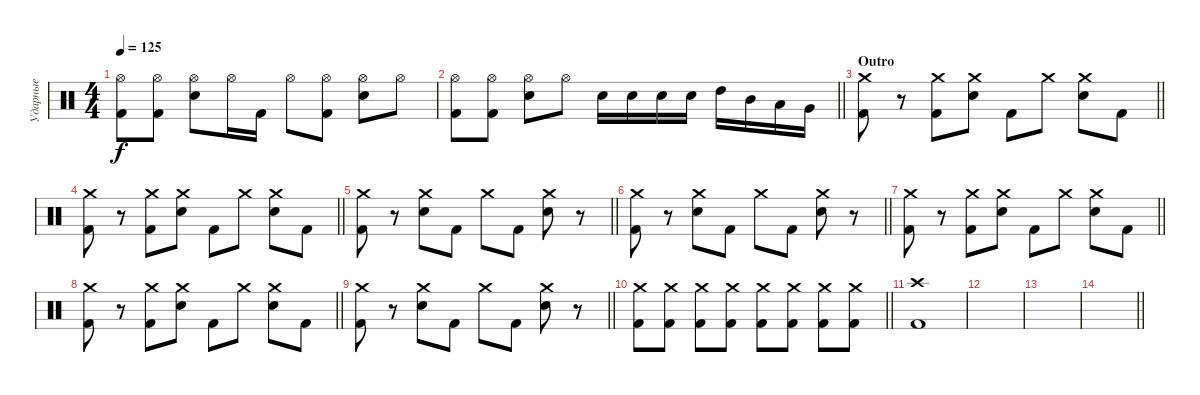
\track ("Ударные" "Ударные") {instrument percussion}
\staff {score}
\articulation defaults
\ts (4 4)
\tempo 125
\clef neutral
\ks c
("Hi-Hat (open)" "Kick (hit) 2").8{dy f} ("Hi-Hat (open)" "Kick (hit) 2").8 ("Hi-Hat (open)" "Electric Snare (hit)").8 "Hi-Hat (open)".16 "Kick (hit) 2".16 "Hi-Hat (open)".8 ("Hi-Hat (open)" "Kick (hit) 2").8 ("Hi-Hat (open)" "Electric Snare (hit)").8 "Hi-Hat (open)".8 |
\barLineRight lightlight
("Hi-Hat (open)" "Kick (hit) 2").8 ("Hi-Hat (open)" "Kick (hit) 2").8 ("Hi-Hat (open)" "Electric Snare (hit)").8 "Hi-Hat (open)".8 "Electric Snare (hit)".16 "Electric Snare (hit)".16 "Electric Snare (hit)".16 "Electric Snare (hit)".16 "High Tom (hit)".16 "Mid Tom (hit)".16 "Low Tom (hit)".16 "Very Low Tom (hit)".16 |
\section ("" "Outro")
\barLineRight lightlight
("Crash medium (hit)" "Kick (hit) 2").8 r.8 ("Crash medium (hit)" "Kick (hit) 2").8 ("Crash medium (hit)" "Electric Snare (hit)").8 "Kick (hit) 2".8 "Crash medium (hit)".8 ("Crash medium (hit)" "Electric Snare (hit)").8 "Kick (hit) 2".8 |
\barLineRight lightlight
("Crash medium (hit)" "Kick (hit) 2").8 r.8 ("Crash medium (hit)" "Kick (hit) 2").8 ("Crash medium (hit)" "Electric Snare (hit)").8 "Kick (hit) 2".8 "Crash medium (hit)".8 ("Crash medium (hit)" "Electric Snare (hit)").8 "Kick (hit) 2".8 |
\barLineRight lightlight
("Crash medium (hit)" "Kick (hit) 2").8 r.8 ("Crash medium (hit)" "Electric Snare (hit)").8 "Kick (hit) 2".8 "Crash medium (hit)".8 "Kick (hit) 2".8 ("Crash medium (hit)" "Electric Snare (hit)").8 r.8 |
\barLineRight lightlight
("Crash medium (hit)" "Kick (hit) 2").8 r.8 ("Crash medium (hit)" "Electric Snare (hit)").8 "Kick (hit) 2".8 "Crash medium (hit)".8 "Kick (hit) 2".8 ("Crash medium (hit)" "Electric Snare (hit)").8 r.8 |
\barLineRight lightlight
("Crash medium (hit)" "Kick (hit) 2").8 r.8 ("Crash medium (hit)" "Kick (hit) 2").8 ("Crash medium (hit)" "Electric Snare (hit)").8 "Kick (hit) 2".8 "Crash medium (hit)".8 ("Crash medium (hit)" "Electric Snare (hit)").8 "Kick (hit) 2".8 |
\barLineRight lightlight
("Crash medium (hit)" "Kick (hit) 2").8 r.8 ("Crash medium (hit)" "Kick (hit) 2").8 ("Crash medium (hit)" "Electric Snare (hit)").8 "Kick (hit) 2".8 "Crash medium (hit)".8 ("Crash medium (hit)" "Electric Snare (hit)").8 "Kick (hit) 2".8 |
\barLineRight lightlight
("Crash medium (hit)" "Kick (hit) 2").8 r.8 ("Crash medium (hit)" "Electric Snare (hit)").8 "Kick (hit) 2".8 "Crash medium (hit)".8 "Kick (hit) 2".8 ("Crash medium (hit)" "Electric Snare (hit)").8 r.8 |
\barLineRight lightlight
("Crash medium (hit)" "Kick (hit) 2").8 ("Crash medium (hit)" "Kick (hit) 2").8 ("Crash medium (hit)" "Kick (hit) 2").8 ("Crash medium (hit)" "Kick (hit) 2").8 ("Crash medium (hit)" "Kick (hit) 2").8 ("Crash medium (hit)" "Kick (hit) 2").8 ("Crash medium (hit)" "Kick (hit) 2").8 ("Crash medium (hit)" "Kick (hit) 2").8 |
("Crash high (hit)" "Kick (hit) 2").1 |
|
|
\barLineRight lightlight
